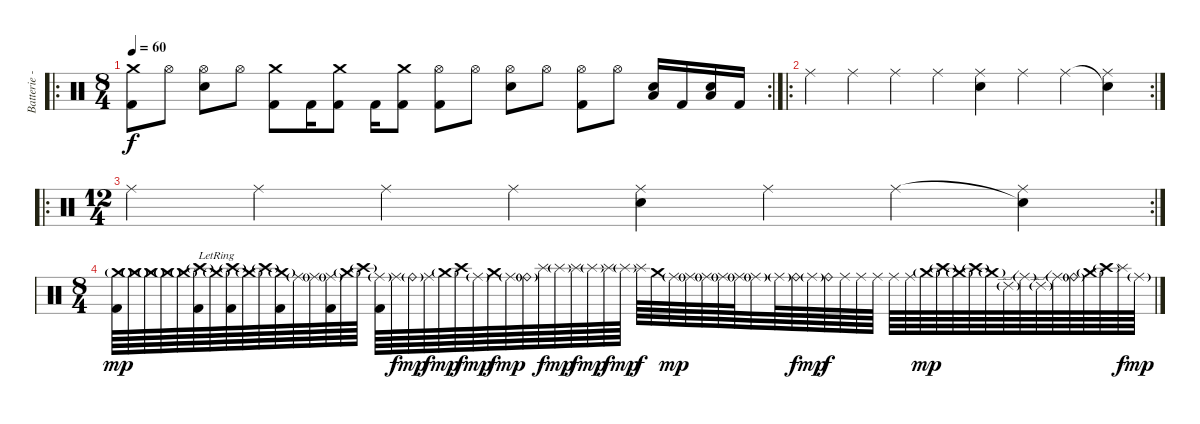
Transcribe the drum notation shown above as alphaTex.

\track ("Batterie - " "Batterie -") {instrument percussion}
\staff {score}
\articulation defaults
\ro
\rc 2
\ts (8 4)
\tempo 60
\clef neutral
\ks c
("Kick (hit) 2" "Crash medium (hit)").8{dy f} "Hi-Hat (open)".8 ("Electric Snare (hit)" "Hi-Hat (open)").8 "Hi-Hat (open)".8 ("Kick (hit) 2" "Crash medium (hit)").8 "Kick (hit) 2".16 ("Kick (hit) 2" "Crash medium (hit)").8 "Kick (hit) 2".16 ("Kick (hit) 2" "Crash medium (hit)").8 ("Kick (hit) 2" "Hi-Hat (open)").8 "Hi-Hat (open)".8 ("Electric Snare (hit)" "Hi-Hat (open)").8 "Hi-Hat (open)".8 ("Kick (hit) 2" "Hi-Hat (open)").8 "Hi-Hat (open)".8 ("Low Floor Tom (hit)" "Electric Snare (hit)").16 "Kick (hit) 2".16 ("Low Floor Tom (hit)" "Electric Snare (hit)").16 "Kick (hit) 2".16 |
\ro
\rc 2 "Ride (middle)".4 "Ride (middle)".4 "Ride (middle)".4 "Ride (middle)".4
("Electric Snare (hit)" "Ride (middle)").4 "Ride (middle)".4 "Ride (middle)".4 ("Snare (hit)"{t} "Ride (middle)").4 |
\ro
\rc 2
\ts (12 4)
"Ride (middle)".4 "Ride (middle)".4 "Ride (middle)".4 "Ride (middle)".4 ("Electric Snare (hit)" "Ride (middle)").4 "Ride (middle)".4 "Ride (middle)".4 ("Snare (hit)"{t} "Ride (middle)").4 |
\ts (8 4)
("Kick (hit) 2" "Crash medium (hit)"{g}).64{dy mp} "Crash medium (hit)"{g}.64 "Crash medium (hit)"{g}.64 "Crash medium (hit)"{g}.64 "Crash medium (hit)"{g}.64 ("Kick (hit) 2" "Crash high (hit)"{g}).64 "Crash medium (hit)"{g lr}.64 ("Kick (hit) 2" "Crash high (hit)"{g}).64 "Crash medium (hit)"{g}.64 "Crash high (hit)"{g}.64 ("Kick (hit) 2" "Crash medium (hit)"{g}).64 "Ride (middle)"{g}.64 "Ride (middle)"{g}.64 ("Kick (hit) 2" "Ride (middle)"{g}).64 "Crash medium (hit)"{g}.64 "Crash high (hit)"{g}.64 ("Kick (hit) 2" "Ride (middle)"{g}).64 "Ride (middle)".64{dy f} "Ride (bell)"{g}.64{dy mp} "Ride (middle)".64{dy f} "Crash medium (hit)"{g}.64{dy mp} "Crash high (hit)".64{dy f} "Ride (middle)"{g}.64{dy mp} "Crash medium (hit)".64{dy f} "Ride (middle)"{g}.64{dy mp} "Ride (bell)"{g}.64 "Splash (hit)".64{dy f} "Splash (hit)"{g}.64{dy mp} "Splash (hit)".64{dy f} "Splash (hit)"{g}.64{dy mp} "Splash (hit)".64{dy f} "Splash (hit)"{g}.64{dy mp} "Splash (hit)".64{dy f} "Crash medium (hit)".64 "Ride (middle)"{g}.64{dy mp} "Ride (middle)"{g}.64 "Ride (middle)"{g}.64 "Ride (middle)"{g}.64 "Ride (middle)"{g}.64 "Ride (middle)"{g}.32 "Ride (middle)"{g}.64 "Ride (bell)".64{dy f} "Ride (middle)"{g}.64{dy mp} "Ride (bell)".64{dy f} "Ride (middle)".64 "Ride (middle)".64 "Ride (middle)".64 "Ride (middle)".64 "Ride (middle)".64 "Crash medium (hit)"{g}.64{dy mp} "Crash high (hit)"{g}.64 "Crash medium (hit)"{g}.64 "Crash high (hit)"{g}.64 "Crash medium (hit)"{g}.64 "Ride (edge) 2"{g}.64 "Ride (middle)"{g}.64 "Ride (edge) 2"{g}.64 "Ride (middle)"{g}.64 "Ride (bell)"{g}.64 "Crash medium (hit)"{g}.64 "Crash high (hit)"{g}.64 "Splash (hit)".64{dy f} "Ride (middle)"{g}.64{dy mp}
